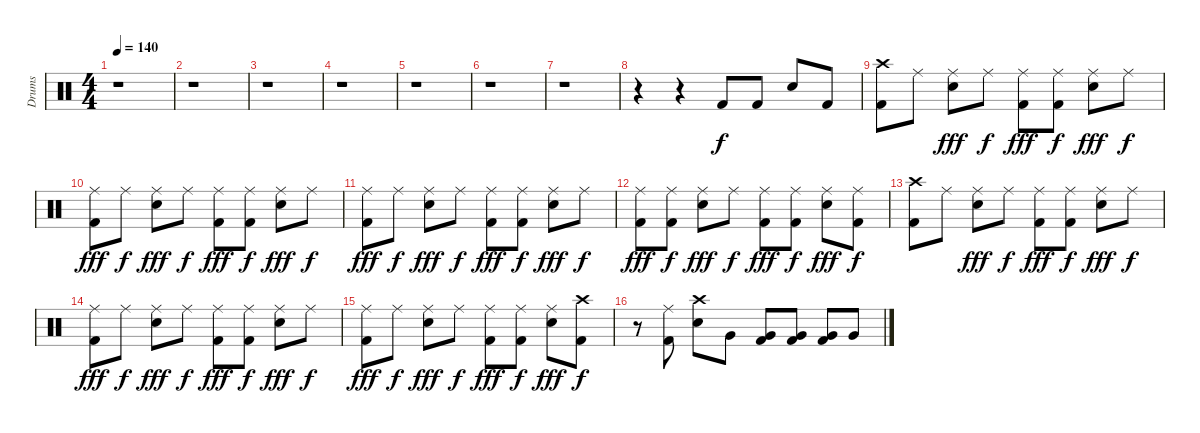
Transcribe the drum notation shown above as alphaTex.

\track ("Drums" "Drums") {instrument percussion}
\staff {score}
\articulation defaults
\ts (4 4)
\tempo 140
\clef neutral
\ks c
r.1{dy f} |
r.1 |
r.1 |
r.1 |
r.1 |
r.1 |
r.1 |
r.4 r.4 "Kick (hit) 2".8 "Kick (hit) 2".8 "Snare (hit) 2".8 "Kick (hit) 2".8 |
("Crash high (hit)" "Kick (hit) 2").8 "Ride (middle)".8 ("Ride (middle)" "Snare (hit) 2").8{dy fff} "Ride (middle)".8{dy f} ("Ride (middle)" "Kick (hit) 2").8{dy fff} ("Ride (middle)" "Kick (hit) 2").8{dy f} ("Ride (middle)" "Snare (hit) 2").8{dy fff} "Ride (middle)".8{dy f} |
("Ride (middle)" "Kick (hit) 2").8{dy fff} "Ride (middle)".8{dy f} ("Ride (middle)" "Snare (hit) 2").8{dy fff} "Ride (middle)".8{dy f} ("Ride (middle)" "Kick (hit) 2").8{dy fff} ("Ride (middle)" "Kick (hit) 2").8{dy f} ("Ride (middle)" "Snare (hit) 2").8{dy fff} "Ride (middle)".8{dy f} |
("Ride (middle)" "Kick (hit) 2").8{dy fff} "Ride (middle)".8{dy f} ("Ride (middle)" "Snare (hit) 2").8{dy fff} "Ride (middle)".8{dy f} ("Ride (middle)" "Kick (hit) 2").8{dy fff} ("Ride (middle)" "Kick (hit) 2").8{dy f} ("Ride (middle)" "Snare (hit) 2").8{dy fff} "Ride (middle)".8{dy f} |
("Ride (middle)" "Kick (hit) 2").8{dy fff} ("Ride (middle)" "Kick (hit) 2").8{dy f} ("Ride (middle)" "Snare (hit) 2").8{dy fff} "Ride (middle)".8{dy f} ("Ride (middle)" "Kick (hit) 2").8{dy fff} ("Ride (middle)" "Kick (hit) 2").8{dy f} ("Ride (middle)" "Snare (hit) 2").8{dy fff} ("Ride (middle)" "Kick (hit) 2").8{dy f} |
("Crash high (hit)" "Kick (hit) 2").8 "Ride (middle)".8 ("Ride (middle)" "Snare (hit) 2").8{dy fff} "Ride (middle)".8{dy f} ("Ride (middle)" "Kick (hit) 2").8{dy fff} ("Ride (middle)" "Kick (hit) 2").8{dy f} ("Ride (middle)" "Snare (hit) 2").8{dy fff} "Ride (middle)".8{dy f} |
("Ride (middle)" "Kick (hit) 2").8{dy fff} "Ride (middle)".8{dy f} ("Ride (middle)" "Snare (hit) 2").8{dy fff} "Ride (middle)".8{dy f} ("Ride (middle)" "Kick (hit) 2").8{dy fff} ("Ride (middle)" "Kick (hit) 2").8{dy f} ("Ride (middle)" "Snare (hit) 2").8{dy fff} "Ride (middle)".8{dy f} |
("Ride (middle)" "Kick (hit) 2").8{dy fff} "Ride (middle)".8{dy f} ("Ride (middle)" "Snare (hit) 2").8{dy fff} "Ride (middle)".8{dy f} ("Ride (middle)" "Kick (hit) 2").8{dy fff} ("Ride (middle)" "Kick (hit) 2").8{dy f} ("Ride (middle)" "Snare (hit) 2").8{dy fff} ("Crash high (hit)" "Kick (hit) 2").8{dy f} |
r.8 ("Ride (middle)" "Kick (hit) 2").8 ("Crash high (hit)" "Snare (hit) 2").8 "Very Low Tom (hit)".8 ("Very Low Tom (hit)" "Kick (hit) 2").8 ("Very Low Tom (hit)" "Kick (hit) 2").8 ("Very Low Tom (hit)" "Kick (hit) 2").8 "Very Low Tom (hit)".8
